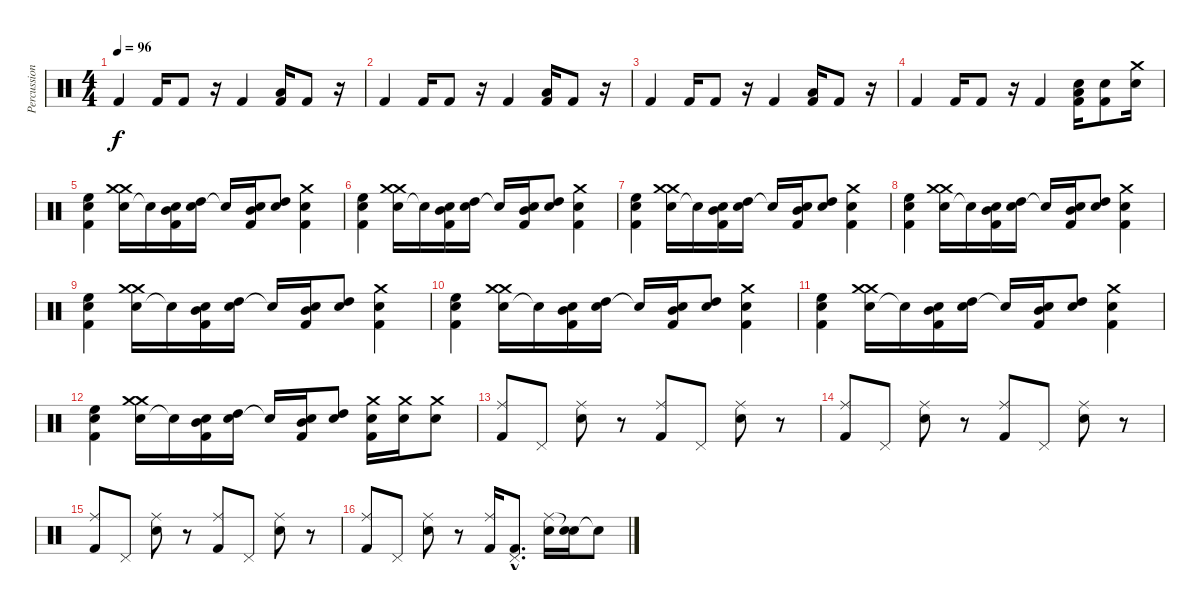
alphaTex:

\track ("Percussion" "Percussion") {instrument percussion}
\staff {score}
\articulation defaults
\ts (4 4)
\tempo 96
\clef neutral
\ks c "Kick (hit) 2".4{dy f} "Kick (hit) 2".16 "Kick (hit) 2".8
r.16 "Kick (hit) 2".4 ("Low Tom (hit)" "Kick (hit) 2").16 "Kick (hit) 2".8 r.16 |
"Kick (hit) 2".4 "Kick (hit) 2".16 "Kick (hit) 2".8 r.16 "Kick (hit) 2".4 ("Low Tom (hit)" "Kick (hit) 2").16 "Kick (hit) 2".8 r.16 |
"Kick (hit) 2".4 "Kick (hit) 2".16 "Kick (hit) 2".8 r.16 "Kick (hit) 2".4 ("Low Tom (hit)" "Kick (hit) 2").16 "Kick (hit) 2".8 r.16 |
"Kick (hit) 2".4 "Kick (hit) 2".16 "Kick (hit) 2".8 r.16 "Kick (hit) 2".4 ("Electric Snare (hit)" "Kick (hit) 2" "Low Tom (hit)").16 ("Electric Snare (hit)" "Kick (hit) 2").8 ("Electric Snare (hit)" "Crash medium (hit)").16 |
("Electric Snare (hit)" "High Floor Tom (hit)" "Kick (hit) 2").4 ("Electric Snare (hit)" "Crash medium (hit)" "Crash medium (hit)").16 "Electric Snare (hit)"{t}.16 ("Electric Snare (hit)" "Mid Tom (hit)" "Kick (hit) 2").16 ("Electric Snare (hit)" "High Tom (hit)").16 "Electric Snare (hit)"{t}.16 ("Electric Snare (hit)" "Mid Tom (hit)" "Kick (hit) 2").16 ("Electric Snare (hit)" "High Tom (hit)").8 ("Electric Snare (hit)" "Kick (hit) 2" "Crash medium (hit)").4 |
("Electric Snare (hit)" "High Floor Tom (hit)" "Kick (hit) 2").4 ("Electric Snare (hit)" "Crash medium (hit)" "Crash medium (hit)").16 "Electric Snare (hit)"{t}.16 ("Electric Snare (hit)" "Mid Tom (hit)" "Kick (hit) 2").16 ("Electric Snare (hit)" "High Tom (hit)").16 "Electric Snare (hit)"{t}.16 ("Electric Snare (hit)" "Mid Tom (hit)" "Kick (hit) 2").16 ("Electric Snare (hit)" "High Tom (hit)").8 ("Electric Snare (hit)" "Kick (hit) 2" "Crash medium (hit)").4 |
("Electric Snare (hit)" "High Floor Tom (hit)" "Kick (hit) 2").4 ("Electric Snare (hit)" "Crash medium (hit)" "Crash medium (hit)").16 "Electric Snare (hit)"{t}.16 ("Electric Snare (hit)" "Mid Tom (hit)" "Kick (hit) 2").16 ("Electric Snare (hit)" "High Tom (hit)").16 "Electric Snare (hit)"{t}.16 ("Electric Snare (hit)" "Mid Tom (hit)" "Kick (hit) 2").16 ("Electric Snare (hit)" "High Tom (hit)").8 ("Electric Snare (hit)" "Kick (hit) 2" "Crash medium (hit)").4 |
("Electric Snare (hit)" "High Floor Tom (hit)" "Kick (hit) 2").4 ("Electric Snare (hit)" "Crash medium (hit)" "Crash medium (hit)").16 "Electric Snare (hit)"{t}.16 ("Electric Snare (hit)" "Mid Tom (hit)" "Kick (hit) 2").16 ("Electric Snare (hit)" "High Tom (hit)").16 "Electric Snare (hit)"{t}.16 ("Electric Snare (hit)" "Mid Tom (hit)" "Kick (hit) 2").16 ("Electric Snare (hit)" "High Tom (hit)").8 ("Electric Snare (hit)" "Kick (hit) 2" "Crash medium (hit)").4 |
("Electric Snare (hit)" "High Floor Tom (hit)" "Kick (hit) 2").4 ("Electric Snare (hit)" "Crash medium (hit)" "Crash medium (hit)").16 "Electric Snare (hit)"{t}.16 ("Electric Snare (hit)" "Mid Tom (hit)" "Kick (hit) 2").16 ("Electric Snare (hit)" "High Tom (hit)").16 "Electric Snare (hit)"{t}.16 ("Electric Snare (hit)" "Mid Tom (hit)" "Kick (hit) 2").16 ("Electric Snare (hit)" "High Tom (hit)").8 ("Electric Snare (hit)" "Kick (hit) 2" "Crash medium (hit)").4 |
("Electric Snare (hit)" "High Floor Tom (hit)" "Kick (hit) 2").4 ("Electric Snare (hit)" "Crash medium (hit)" "Crash medium (hit)").16 "Electric Snare (hit)"{t}.16 ("Electric Snare (hit)" "Mid Tom (hit)" "Kick (hit) 2").16 ("Electric Snare (hit)" "High Tom (hit)").16 "Electric Snare (hit)"{t}.16 ("Electric Snare (hit)" "Mid Tom (hit)" "Kick (hit) 2").16 ("Electric Snare (hit)" "High Tom (hit)").8 ("Electric Snare (hit)" "Kick (hit) 2" "Crash medium (hit)").4 |
("Electric Snare (hit)" "High Floor Tom (hit)" "Kick (hit) 2").4 ("Electric Snare (hit)" "Crash medium (hit)" "Crash medium (hit)").16 "Electric Snare (hit)"{t}.16 ("Electric Snare (hit)" "Mid Tom (hit)" "Kick (hit) 2").16 ("Electric Snare (hit)" "High Tom (hit)").16 "Electric Snare (hit)"{t}.16 ("Electric Snare (hit)" "Mid Tom (hit)" "Kick (hit) 2").16 ("Electric Snare (hit)" "High Tom (hit)").8 ("Electric Snare (hit)" "Kick (hit) 2" "Crash medium (hit)").4 |
("Electric Snare (hit)" "High Floor Tom (hit)" "Kick (hit) 2").4 ("Electric Snare (hit)" "Crash medium (hit)" "Crash medium (hit)").16 "Electric Snare (hit)"{t}.16 ("Electric Snare (hit)" "Mid Tom (hit)" "Kick (hit) 2").16 ("Electric Snare (hit)" "High Tom (hit)").16 "Electric Snare (hit)"{t}.16 ("Electric Snare (hit)" "Mid Tom (hit)" "Kick (hit) 2").16 ("Electric Snare (hit)" "High Tom (hit)").8 ("Electric Snare (hit)" "Kick (hit) 2" "Crash medium (hit)").16 ("Electric Snare (hit)" "Crash medium (hit)").16 ("Electric Snare (hit)" "Crash medium (hit)").8 |
("Kick (hit) 2" "Ride (middle)").8 "Pedal Hi-Hat (hit)".8 ("Electric Snare (hit)" "Ride (middle)").8 r.8 ("Kick (hit) 2" "Ride (middle)").8 "Pedal Hi-Hat (hit)".8 ("Electric Snare (hit)" "Ride (middle)").8 r.8 |
("Kick (hit) 2" "Ride (middle)").8 "Pedal Hi-Hat (hit)".8 ("Electric Snare (hit)" "Ride (middle)").8 r.8 ("Kick (hit) 2" "Ride (middle)").8 "Pedal Hi-Hat (hit)".8 ("Electric Snare (hit)" "Ride (middle)").8 r.8 |
("Kick (hit) 2" "Ride (middle)").8 "Pedal Hi-Hat (hit)".8 ("Electric Snare (hit)" "Ride (middle)").8 r.8 ("Kick (hit) 2" "Ride (middle)").8 "Pedal Hi-Hat (hit)".8 ("Electric Snare (hit)" "Ride (middle)").8 r.8 |
("Kick (hit) 2" "Ride (middle)").8 "Pedal Hi-Hat (hit)".8 ("Electric Snare (hit)" "Ride (middle)").8 r.8 ("Kick (hit) 2" "Ride (middle)").16 ("Kick (hit) 2"{hac} "Pedal Hi-Hat (hit)"{hac}).8{d} ("Electric Snare (hit)" "Ride (middle)").16 ("Electric Snare (hit)" "Snare (hit)"{t}).16 "Snare (hit)"{t}.8
